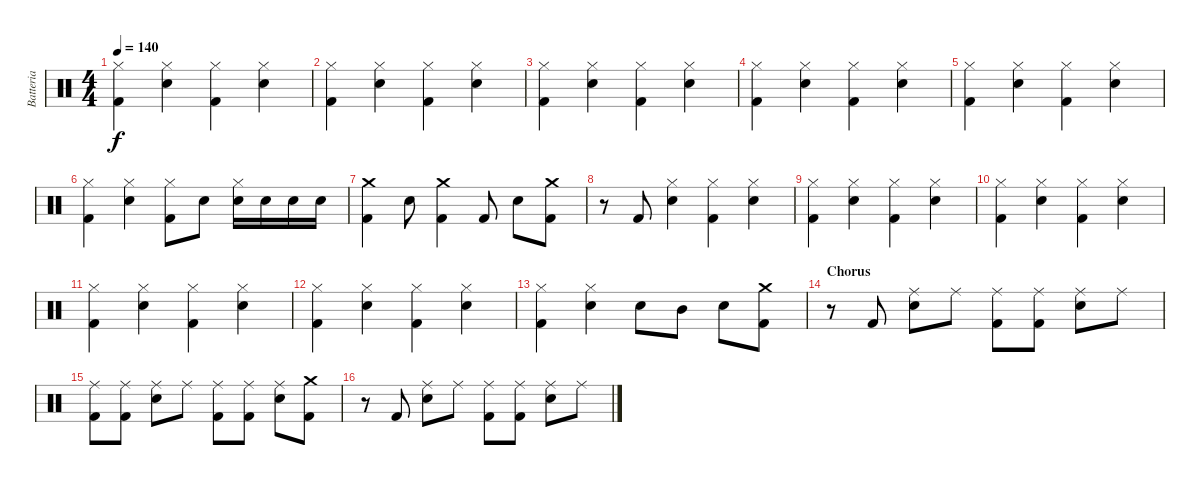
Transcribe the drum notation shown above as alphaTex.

\track ("Batteria" "Batteria") {instrument percussion}
\staff {score}
\articulation defaults
\ts (4 4)
\tempo 140
\clef neutral
\ks c
("Hi-Hat (closed)" "Kick (hit) 2").4{dy f} ("Hi-Hat (closed)" "Snare (hit) 2").4 ("Hi-Hat (closed)" "Kick (hit) 2").4 ("Hi-Hat (closed)" "Snare (hit) 2").4 |
("Hi-Hat (closed)" "Kick (hit) 2").4 ("Hi-Hat (closed)" "Snare (hit) 2").4 ("Hi-Hat (closed)" "Kick (hit) 2").4 ("Hi-Hat (closed)" "Snare (hit) 2").4 |
("Hi-Hat (closed)" "Kick (hit) 2").4 ("Hi-Hat (closed)" "Snare (hit) 2").4 ("Hi-Hat (closed)" "Kick (hit) 2").4 ("Hi-Hat (closed)" "Snare (hit) 2").4 |
("Hi-Hat (closed)" "Kick (hit) 2").4 ("Hi-Hat (closed)" "Snare (hit) 2").4 ("Hi-Hat (closed)" "Kick (hit) 2").4 ("Hi-Hat (closed)" "Snare (hit) 2").4 |
("Hi-Hat (closed)" "Kick (hit) 2").4 ("Hi-Hat (closed)" "Snare (hit) 2").4 ("Hi-Hat (closed)" "Kick (hit) 2").4 ("Hi-Hat (closed)" "Snare (hit) 2").4 |
("Hi-Hat (closed)" "Kick (hit) 2").4 ("Hi-Hat (closed)" "Snare (hit) 2").4 ("Hi-Hat (closed)" "Kick (hit) 2").8 "Snare (hit) 2".8 ("Hi-Hat (closed)" "Snare (hit) 2").16 "Snare (hit) 2".16 "Snare (hit) 2".16 "Snare (hit) 2".16 |
("Crash medium (hit)" "Kick (hit) 2").4 "Snare (hit) 2".8 ("Crash medium (hit)" "Kick (hit) 2").4 "Kick (hit) 2".8 "Snare (hit) 2".8 ("Crash medium (hit)" "Kick (hit) 2").8 |
r.8 "Kick (hit) 2".8 ("Hi-Hat (closed)" "Snare (hit) 2").4 ("Hi-Hat (closed)" "Kick (hit) 2").4 ("Hi-Hat (closed)" "Snare (hit) 2").4 |
("Hi-Hat (closed)" "Kick (hit) 2").4 ("Hi-Hat (closed)" "Snare (hit) 2").4 ("Hi-Hat (closed)" "Kick (hit) 2").4 ("Hi-Hat (closed)" "Snare (hit) 2").4 |
("Hi-Hat (closed)" "Kick (hit) 2").4 ("Hi-Hat (closed)" "Snare (hit) 2").4 ("Hi-Hat (closed)" "Kick (hit) 2").4 ("Hi-Hat (closed)" "Snare (hit) 2").4 |
("Hi-Hat (closed)" "Kick (hit) 2").4 ("Hi-Hat (closed)" "Snare (hit) 2").4 ("Hi-Hat (closed)" "Kick (hit) 2").4 ("Hi-Hat (closed)" "Snare (hit) 2").4 |
("Hi-Hat (closed)" "Kick (hit) 2").4 ("Hi-Hat (closed)" "Snare (hit) 2").4 ("Hi-Hat (closed)" "Kick (hit) 2").4 ("Hi-Hat (closed)" "Snare (hit) 2").4 |
("Hi-Hat (closed)" "Kick (hit) 2").4 ("Hi-Hat (closed)" "Snare (hit) 2").4 "Snare (hit) 2".8 "Mid Tom (hit)".8 "Snare (hit) 2".8 ("Crash medium (hit)" "Kick (hit) 2").8 |
\section ("" "Chorus")
r.8 "Kick (hit) 2".8 ("Ride (middle)" "Snare (hit) 2").8 "Ride (middle)".8 ("Ride (middle)" "Kick (hit) 2").8 ("Ride (middle)" "Kick (hit) 2").8 ("Ride (middle)" "Snare (hit) 2").8 "Ride (middle)".8 |
("Ride (middle)" "Kick (hit) 2").8 ("Ride (middle)" "Kick (hit) 2").8 ("Ride (middle)" "Snare (hit) 2").8 "Ride (middle)".8 ("Ride (middle)" "Kick (hit) 2").8 ("Ride (middle)" "Kick (hit) 2").8 ("Ride (middle)" "Snare (hit) 2").8 ("Crash medium (hit)" "Kick (hit) 2").8 |
r.8 "Kick (hit) 2".8 ("Ride (middle)" "Snare (hit) 2").8 "Ride (middle)".8 ("Ride (middle)" "Kick (hit) 2").8 ("Ride (middle)" "Kick (hit) 2").8 ("Ride (middle)" "Snare (hit) 2").8 "Ride (middle)".8
